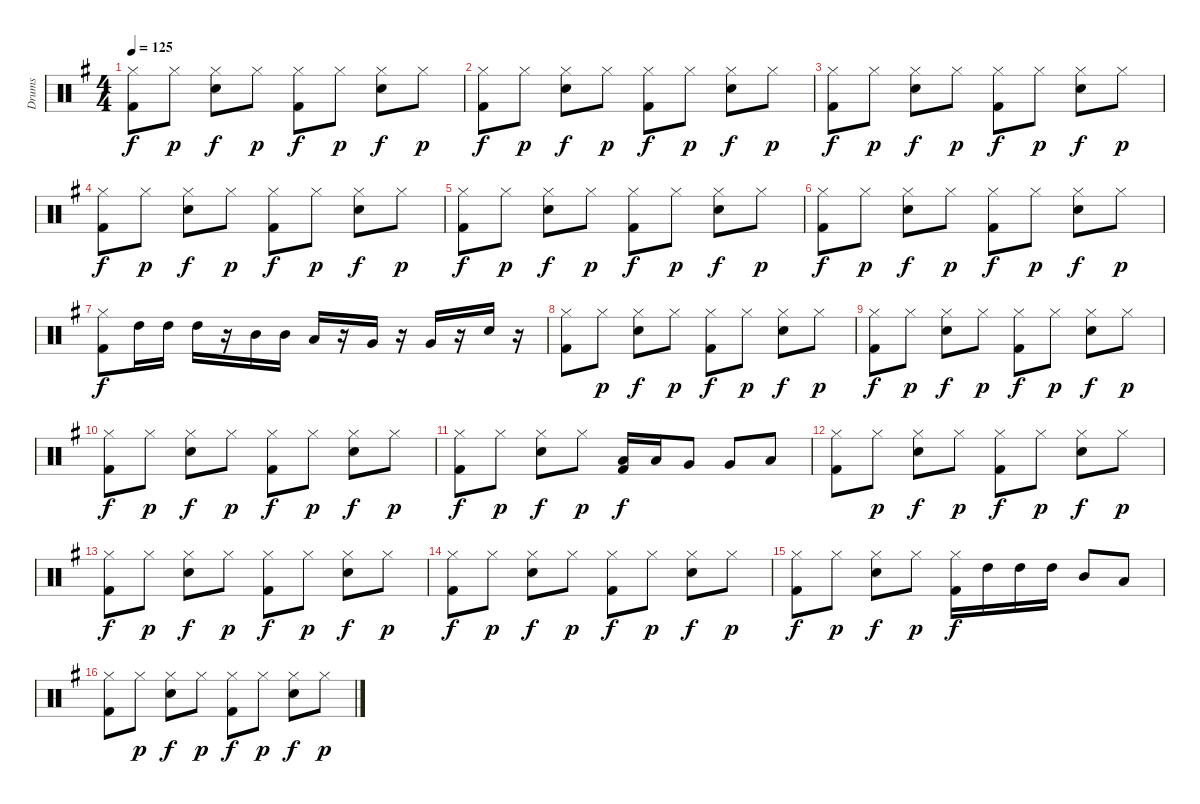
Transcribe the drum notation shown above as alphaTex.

\track ("Drums" "Drums") {instrument percussion}
\staff {score}
\articulation defaults
\ts (4 4)
\tempo 125
\clef neutral
\ks g
("Hi-Hat (closed)" "Kick (hit) 2").8{dy f} "Hi-Hat (closed)".8{dy p} ("Hi-Hat (closed)" "Electric Snare (hit)").8{dy f} "Hi-Hat (closed)".8{dy p} ("Hi-Hat (closed)" "Kick (hit) 2").8{dy f} "Hi-Hat (closed)".8{dy p} ("Hi-Hat (closed)" "Electric Snare (hit)").8{dy f} "Hi-Hat (closed)".8{dy p} |
("Hi-Hat (closed)" "Kick (hit) 2").8{dy f} "Hi-Hat (closed)".8{dy p} ("Hi-Hat (closed)" "Electric Snare (hit)").8{dy f} "Hi-Hat (closed)".8{dy p} ("Hi-Hat (closed)" "Kick (hit) 2").8{dy f} "Hi-Hat (closed)".8{dy p} ("Hi-Hat (closed)" "Electric Snare (hit)").8{dy f} "Hi-Hat (closed)".8{dy p} |
("Hi-Hat (closed)" "Kick (hit) 2").8{dy f} "Hi-Hat (closed)".8{dy p} ("Hi-Hat (closed)" "Electric Snare (hit)").8{dy f} "Hi-Hat (closed)".8{dy p} ("Hi-Hat (closed)" "Kick (hit) 2").8{dy f} "Hi-Hat (closed)".8{dy p} ("Hi-Hat (closed)" "Electric Snare (hit)").8{dy f} "Hi-Hat (closed)".8{dy p} |
("Hi-Hat (closed)" "Kick (hit) 2").8{dy f} "Hi-Hat (closed)".8{dy p} ("Hi-Hat (closed)" "Electric Snare (hit)").8{dy f} "Hi-Hat (closed)".8{dy p} ("Hi-Hat (closed)" "Kick (hit) 2").8{dy f} "Hi-Hat (closed)".8{dy p} ("Hi-Hat (closed)" "Electric Snare (hit)").8{dy f} "Hi-Hat (closed)".8{dy p} |
("Hi-Hat (closed)" "Kick (hit) 2").8{dy f} "Hi-Hat (closed)".8{dy p} ("Hi-Hat (closed)" "Electric Snare (hit)").8{dy f} "Hi-Hat (closed)".8{dy p} ("Hi-Hat (closed)" "Kick (hit) 2").8{dy f} "Hi-Hat (closed)".8{dy p} ("Hi-Hat (closed)" "Electric Snare (hit)").8{dy f} "Hi-Hat (closed)".8{dy p} |
("Hi-Hat (closed)" "Kick (hit) 2").8{dy f} "Hi-Hat (closed)".8{dy p} ("Hi-Hat (closed)" "Electric Snare (hit)").8{dy f} "Hi-Hat (closed)".8{dy p} ("Hi-Hat (closed)" "Kick (hit) 2").8{dy f} "Hi-Hat (closed)".8{dy p} ("Hi-Hat (closed)" "Electric Snare (hit)").8{dy f} "Hi-Hat (closed)".8{dy p} |
("Hi-Hat (closed)" "Kick (hit) 2").8{dy f} "High Tom (hit)".16 "High Tom (hit)".16 "High Tom (hit)".16 r.16 "Mid Tom (hit)".16 "Mid Tom (hit)".16 "Low Tom (hit)".16 r.16 "Very Low Tom (hit)".16 r.16 "Very Low Tom (hit)".16 r.16 "Electric Snare (hit)".16 r.16 |
("Hi-Hat (closed)" "Kick (hit) 2").8 "Hi-Hat (closed)".8{dy p} ("Hi-Hat (closed)" "Electric Snare (hit)").8{dy f} "Hi-Hat (closed)".8{dy p} ("Hi-Hat (closed)" "Kick (hit) 2").8{dy f} "Hi-Hat (closed)".8{dy p} ("Hi-Hat (closed)" "Electric Snare (hit)").8{dy f} "Hi-Hat (closed)".8{dy p} |
("Hi-Hat (closed)" "Kick (hit) 2").8{dy f} "Hi-Hat (closed)".8{dy p} ("Hi-Hat (closed)" "Electric Snare (hit)").8{dy f} "Hi-Hat (closed)".8{dy p} ("Hi-Hat (closed)" "Kick (hit) 2").8{dy f} "Hi-Hat (closed)".8{dy p} ("Hi-Hat (closed)" "Electric Snare (hit)").8{dy f} "Hi-Hat (closed)".8{dy p} |
("Hi-Hat (closed)" "Kick (hit) 2").8{dy f} "Hi-Hat (closed)".8{dy p} ("Hi-Hat (closed)" "Electric Snare (hit)").8{dy f} "Hi-Hat (closed)".8{dy p} ("Hi-Hat (closed)" "Kick (hit) 2").8{dy f} "Hi-Hat (closed)".8{dy p} ("Hi-Hat (closed)" "Electric Snare (hit)").8{dy f} "Hi-Hat (closed)".8{dy p} |
("Hi-Hat (closed)" "Kick (hit) 2").8{dy f} "Hi-Hat (closed)".8{dy p} ("Hi-Hat (closed)" "Electric Snare (hit)").8{dy f} "Hi-Hat (closed)".8{dy p} ("Low Tom (hit)" "Kick (hit) 2").16{dy f} "Low Tom (hit)".16 "Very Low Tom (hit)".8 "Very Low Tom (hit)".8 "Low Floor Tom (hit)".8 |
("Hi-Hat (closed)" "Kick (hit) 2").8 "Hi-Hat (closed)".8{dy p} ("Hi-Hat (closed)" "Electric Snare (hit)").8{dy f} "Hi-Hat (closed)".8{dy p} ("Hi-Hat (closed)" "Kick (hit) 2").8{dy f} "Hi-Hat (closed)".8{dy p} ("Hi-Hat (closed)" "Electric Snare (hit)").8{dy f} "Hi-Hat (closed)".8{dy p} |
("Hi-Hat (closed)" "Kick (hit) 2").8{dy f} "Hi-Hat (closed)".8{dy p} ("Hi-Hat (closed)" "Electric Snare (hit)").8{dy f} "Hi-Hat (closed)".8{dy p} ("Hi-Hat (closed)" "Kick (hit) 2").8{dy f} "Hi-Hat (closed)".8{dy p} ("Hi-Hat (closed)" "Electric Snare (hit)").8{dy f} "Hi-Hat (closed)".8{dy p} |
("Hi-Hat (closed)" "Kick (hit) 2").8{dy f} "Hi-Hat (closed)".8{dy p} ("Hi-Hat (closed)" "Electric Snare (hit)").8{dy f} "Hi-Hat (closed)".8{dy p} ("Hi-Hat (closed)" "Kick (hit) 2").8{dy f} "Hi-Hat (closed)".8{dy p} ("Hi-Hat (closed)" "Electric Snare (hit)").8{dy f} "Hi-Hat (closed)".8{dy p} |
("Hi-Hat (closed)" "Kick (hit) 2").8{dy f} "Hi-Hat (closed)".8{dy p} ("Hi-Hat (closed)" "Electric Snare (hit)").8{dy f} "Hi-Hat (closed)".8{dy p} ("Hi-Hat (closed)" "Kick (hit) 2").16{dy f} "High Tom (hit)".16 "High Tom (hit)".16 "High Tom (hit)".16 "Mid Tom (hit)".8 "Low Tom (hit)".8 |
("Hi-Hat (closed)" "Kick (hit) 2").8 "Hi-Hat (closed)".8{dy p} ("Hi-Hat (closed)" "Electric Snare (hit)").8{dy f} "Hi-Hat (closed)".8{dy p} ("Hi-Hat (closed)" "Kick (hit) 2").8{dy f} "Hi-Hat (closed)".8{dy p} ("Hi-Hat (closed)" "Electric Snare (hit)").8{dy f} "Hi-Hat (closed)".8{dy p}
